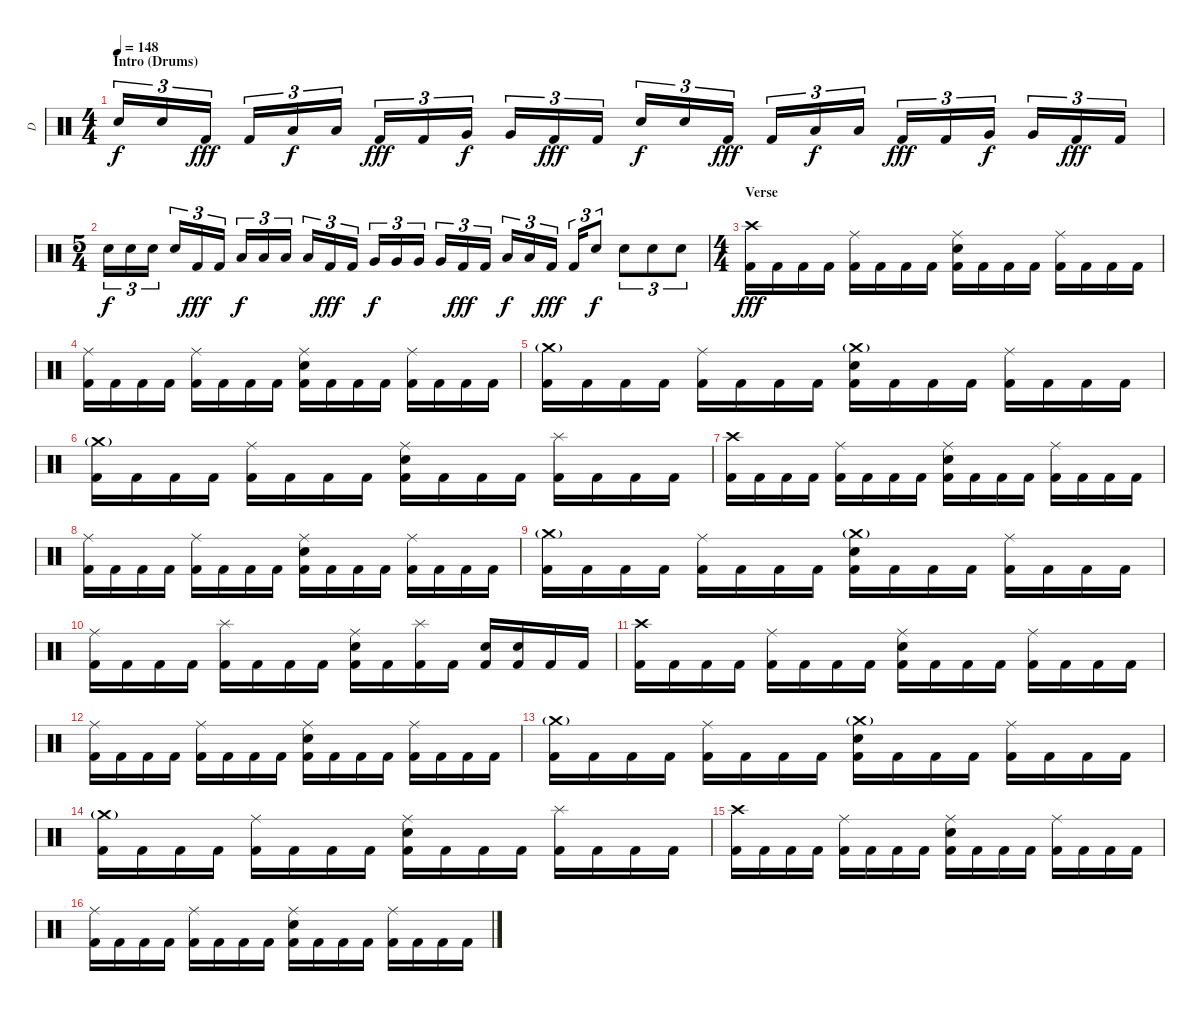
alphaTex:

\track ("D" "D") {instrument percussion}
\staff {score}
\articulation defaults
\ts (4 4)
\section ("" "Intro (Drums)")
\tempo 148
\clef neutral
\ks c "Electric Snare (hit)".16{tu (3 2) dy f} "Electric Snare (hit)".16{tu (3 2)} "Kick (hit) 2".16{tu (3 2) dy fff} "Kick (hit) 2".16{tu (3 2)} "Low Tom (hit)".16{tu (3 2) dy f} "Low Tom (hit)".16{tu (3 2)} "Kick (hit) 2".16{tu (3 2) dy fff} "Kick (hit) 2".16{tu (3 2)} "Very Low Tom (hit)".16{tu (3 2) dy f} "Very Low Tom (hit)".16{tu (3 2)} "Kick (hit) 2".16{tu (3 2) dy fff} "Kick (hit) 2".16{tu (3 2)} "Electric Snare (hit)".16{tu (3 2) dy f} "Electric Snare (hit)".16{tu (3 2)} "Kick (hit) 2".16{tu (3 2) dy fff} "Kick (hit) 2".16{tu (3 2)} "Low Tom (hit)".16{tu (3 2) dy f} "Low Tom (hit)".16{tu (3 2)} "Kick (hit) 2".16{tu (3 2) dy fff} "Kick (hit) 2".16{tu (3 2)} "Very Low Tom (hit)".16{tu (3 2) dy f} "Very Low Tom (hit)".16{tu (3 2)} "Kick (hit) 2".16{tu (3 2) dy fff} "Kick (hit) 2".16{tu (3 2)}
|
\ts (5 4)
"Electric Snare (hit)".16{tu (3 2) dy f} "Electric Snare (hit)".16{tu (3 2)} "Electric Snare (hit)".16{tu (3 2)} "Electric Snare (hit)".16{tu (3 2)} "Kick (hit) 2".16{tu (3 2) dy fff} "Kick (hit) 2".16{tu (3 2)} "Low Tom (hit)".16{tu (3 2) dy f} "Low Tom (hit)".16{tu (3 2)} "Low Tom (hit)".16{tu (3 2)} "Low Tom (hit)".16{tu (3 2)} "Kick (hit) 2".16{tu (3 2) dy fff} "Kick (hit) 2".16{tu (3 2)} "Very Low Tom (hit)".16{tu (3 2) dy f} "Very Low Tom (hit)".16{tu (3 2)} "Very Low Tom (hit)".16{tu (3 2)} "Very Low Tom (hit)".16{tu (3 2)} "Kick (hit) 2".16{tu (3 2) dy fff} "Kick (hit) 2".16{tu (3 2)} "Low Floor Tom (hit)".16{tu (3 2) dy f} "Low Floor Tom (hit)".16{tu (3 2)} "Kick (hit) 2".16{tu (3 2) dy fff} "Kick (hit) 2".16{tu (3 2)} "Electric Snare (hit)".8{tu (3 2) dy f} "Electric Snare (hit)".8{tu (3 2)} "Electric Snare (hit)".8{tu (3 2)} "Electric Snare (hit)".8{tu (3 2)} |
\ts (4 4)
\section ("" "Verse")
("Crash high (hit)" "Kick (hit) 2").16{dy fff} "Kick (hit) 2".16 "Kick (hit) 2".16 "Kick (hit) 2".16 ("Ride (middle)" "Kick (hit) 2").16 "Kick (hit) 2".16 "Kick (hit) 2".16 "Kick (hit) 2".16 ("Ride (middle)" "Electric Snare (hit)" "Kick (hit) 2").16 "Kick (hit) 2".16 "Kick (hit) 2".16 "Kick (hit) 2".16 ("Ride (middle)" "Kick (hit) 2").16 "Kick (hit) 2".16 "Kick (hit) 2".16 "Kick (hit) 2".16 |
("Ride (middle)" "Kick (hit) 2").16 "Kick (hit) 2".16 "Kick (hit) 2".16 "Kick (hit) 2".16 ("Ride (middle)" "Kick (hit) 2").16 "Kick (hit) 2".16 "Kick (hit) 2".16 "Kick (hit) 2".16 ("Ride (middle)" "Electric Snare (hit)" "Kick (hit) 2").16 "Kick (hit) 2".16 "Kick (hit) 2".16 "Kick (hit) 2".16 ("Ride (middle)" "Kick (hit) 2").16 "Kick (hit) 2".16 "Kick (hit) 2".16 "Kick (hit) 2".16 |
("Crash medium (hit)"{g} "Kick (hit) 2").16 "Kick (hit) 2".16 "Kick (hit) 2".16 "Kick (hit) 2".16 ("Ride (middle)" "Kick (hit) 2").16 "Kick (hit) 2".16 "Kick (hit) 2".16 "Kick (hit) 2".16 ("Crash medium (hit)"{g} "Electric Snare (hit)" "Kick (hit) 2").16 "Kick (hit) 2".16 "Kick (hit) 2".16 "Kick (hit) 2".16 ("Ride (middle)" "Kick (hit) 2").16 "Kick (hit) 2".16 "Kick (hit) 2".16 "Kick (hit) 2".16 |
("Crash medium (hit)"{g} "Kick (hit) 2").16 "Kick (hit) 2".16 "Kick (hit) 2".16 "Kick (hit) 2".16 ("Ride (middle)" "Kick (hit) 2").16 "Kick (hit) 2".16 "Kick (hit) 2".16 "Kick (hit) 2".16 ("Ride (middle)" "Electric Snare (hit)" "Kick (hit) 2").16 "Kick (hit) 2".16 "Kick (hit) 2".16 "Kick (hit) 2".16 ("Splash (hit)" "Kick (hit) 2").16 "Kick (hit) 2".16 "Kick (hit) 2".16 "Kick (hit) 2".16 |
("Crash high (hit)" "Kick (hit) 2").16 "Kick (hit) 2".16 "Kick (hit) 2".16 "Kick (hit) 2".16 ("Ride (middle)" "Kick (hit) 2").16 "Kick (hit) 2".16 "Kick (hit) 2".16 "Kick (hit) 2".16 ("Ride (middle)" "Electric Snare (hit)" "Kick (hit) 2").16 "Kick (hit) 2".16 "Kick (hit) 2".16 "Kick (hit) 2".16 ("Ride (middle)" "Kick (hit) 2").16 "Kick (hit) 2".16 "Kick (hit) 2".16 "Kick (hit) 2".16 |
("Ride (middle)" "Kick (hit) 2").16 "Kick (hit) 2".16 "Kick (hit) 2".16 "Kick (hit) 2".16 ("Ride (middle)" "Kick (hit) 2").16 "Kick (hit) 2".16 "Kick (hit) 2".16 "Kick (hit) 2".16 ("Ride (middle)" "Electric Snare (hit)" "Kick (hit) 2").16 "Kick (hit) 2".16 "Kick (hit) 2".16 "Kick (hit) 2".16 ("Ride (middle)" "Kick (hit) 2").16 "Kick (hit) 2".16 "Kick (hit) 2".16 "Kick (hit) 2".16 |
("Crash medium (hit)"{g} "Kick (hit) 2").16 "Kick (hit) 2".16 "Kick (hit) 2".16 "Kick (hit) 2".16 ("Ride (middle)" "Kick (hit) 2").16 "Kick (hit) 2".16 "Kick (hit) 2".16 "Kick (hit) 2".16 ("Crash medium (hit)"{g} "Electric Snare (hit)" "Kick (hit) 2").16 "Kick (hit) 2".16 "Kick (hit) 2".16 "Kick (hit) 2".16 ("Ride (middle)" "Kick (hit) 2").16 "Kick (hit) 2".16 "Kick (hit) 2".16 "Kick (hit) 2".16 |
("Ride (middle)" "Kick (hit) 2").16 "Kick (hit) 2".16 "Kick (hit) 2".16 "Kick (hit) 2".16 ("Splash (hit)" "Kick (hit) 2").16 "Kick (hit) 2".16 "Kick (hit) 2".16 "Kick (hit) 2".16 ("Ride (middle)" "Electric Snare (hit)" "Kick (hit) 2").16 "Kick (hit) 2".16 ("Splash (hit)" "Kick (hit) 2").16 "Kick (hit) 2".16 ("Electric Snare (hit)" "Kick (hit) 2").16 ("Electric Snare (hit)" "Kick (hit) 2").16 "Kick (hit) 2".16 "Kick (hit) 2".16 |
("Crash high (hit)" "Kick (hit) 2").16 "Kick (hit) 2".16 "Kick (hit) 2".16 "Kick (hit) 2".16 ("Ride (middle)" "Kick (hit) 2").16 "Kick (hit) 2".16 "Kick (hit) 2".16 "Kick (hit) 2".16 ("Ride (middle)" "Electric Snare (hit)" "Kick (hit) 2").16 "Kick (hit) 2".16 "Kick (hit) 2".16 "Kick (hit) 2".16 ("Ride (middle)" "Kick (hit) 2").16 "Kick (hit) 2".16 "Kick (hit) 2".16 "Kick (hit) 2".16 |
("Ride (middle)" "Kick (hit) 2").16 "Kick (hit) 2".16 "Kick (hit) 2".16 "Kick (hit) 2".16 ("Ride (middle)" "Kick (hit) 2").16 "Kick (hit) 2".16 "Kick (hit) 2".16 "Kick (hit) 2".16 ("Ride (middle)" "Electric Snare (hit)" "Kick (hit) 2").16 "Kick (hit) 2".16 "Kick (hit) 2".16 "Kick (hit) 2".16 ("Ride (middle)" "Kick (hit) 2").16 "Kick (hit) 2".16 "Kick (hit) 2".16 "Kick (hit) 2".16 |
("Crash medium (hit)"{g} "Kick (hit) 2").16 "Kick (hit) 2".16 "Kick (hit) 2".16 "Kick (hit) 2".16 ("Ride (middle)" "Kick (hit) 2").16 "Kick (hit) 2".16 "Kick (hit) 2".16 "Kick (hit) 2".16 ("Crash medium (hit)"{g} "Electric Snare (hit)" "Kick (hit) 2").16 "Kick (hit) 2".16 "Kick (hit) 2".16 "Kick (hit) 2".16 ("Ride (middle)" "Kick (hit) 2").16 "Kick (hit) 2".16 "Kick (hit) 2".16 "Kick (hit) 2".16 |
("Crash medium (hit)"{g} "Kick (hit) 2").16 "Kick (hit) 2".16 "Kick (hit) 2".16 "Kick (hit) 2".16 ("Ride (middle)" "Kick (hit) 2").16 "Kick (hit) 2".16 "Kick (hit) 2".16 "Kick (hit) 2".16 ("Ride (middle)" "Electric Snare (hit)" "Kick (hit) 2").16 "Kick (hit) 2".16 "Kick (hit) 2".16 "Kick (hit) 2".16 ("Splash (hit)" "Kick (hit) 2").16 "Kick (hit) 2".16 "Kick (hit) 2".16 "Kick (hit) 2".16 |
("Crash high (hit)" "Kick (hit) 2").16 "Kick (hit) 2".16 "Kick (hit) 2".16 "Kick (hit) 2".16 ("Ride (middle)" "Kick (hit) 2").16 "Kick (hit) 2".16 "Kick (hit) 2".16 "Kick (hit) 2".16 ("Ride (middle)" "Electric Snare (hit)" "Kick (hit) 2").16 "Kick (hit) 2".16 "Kick (hit) 2".16 "Kick (hit) 2".16 ("Ride (middle)" "Kick (hit) 2").16 "Kick (hit) 2".16 "Kick (hit) 2".16 "Kick (hit) 2".16 |
("Ride (middle)" "Kick (hit) 2").16 "Kick (hit) 2".16 "Kick (hit) 2".16 "Kick (hit) 2".16 ("Ride (middle)" "Kick (hit) 2").16 "Kick (hit) 2".16 "Kick (hit) 2".16 "Kick (hit) 2".16 ("Ride (middle)" "Electric Snare (hit)" "Kick (hit) 2").16 "Kick (hit) 2".16 "Kick (hit) 2".16 "Kick (hit) 2".16 ("Ride (middle)" "Kick (hit) 2").16 "Kick (hit) 2".16 "Kick (hit) 2".16 "Kick (hit) 2".16
